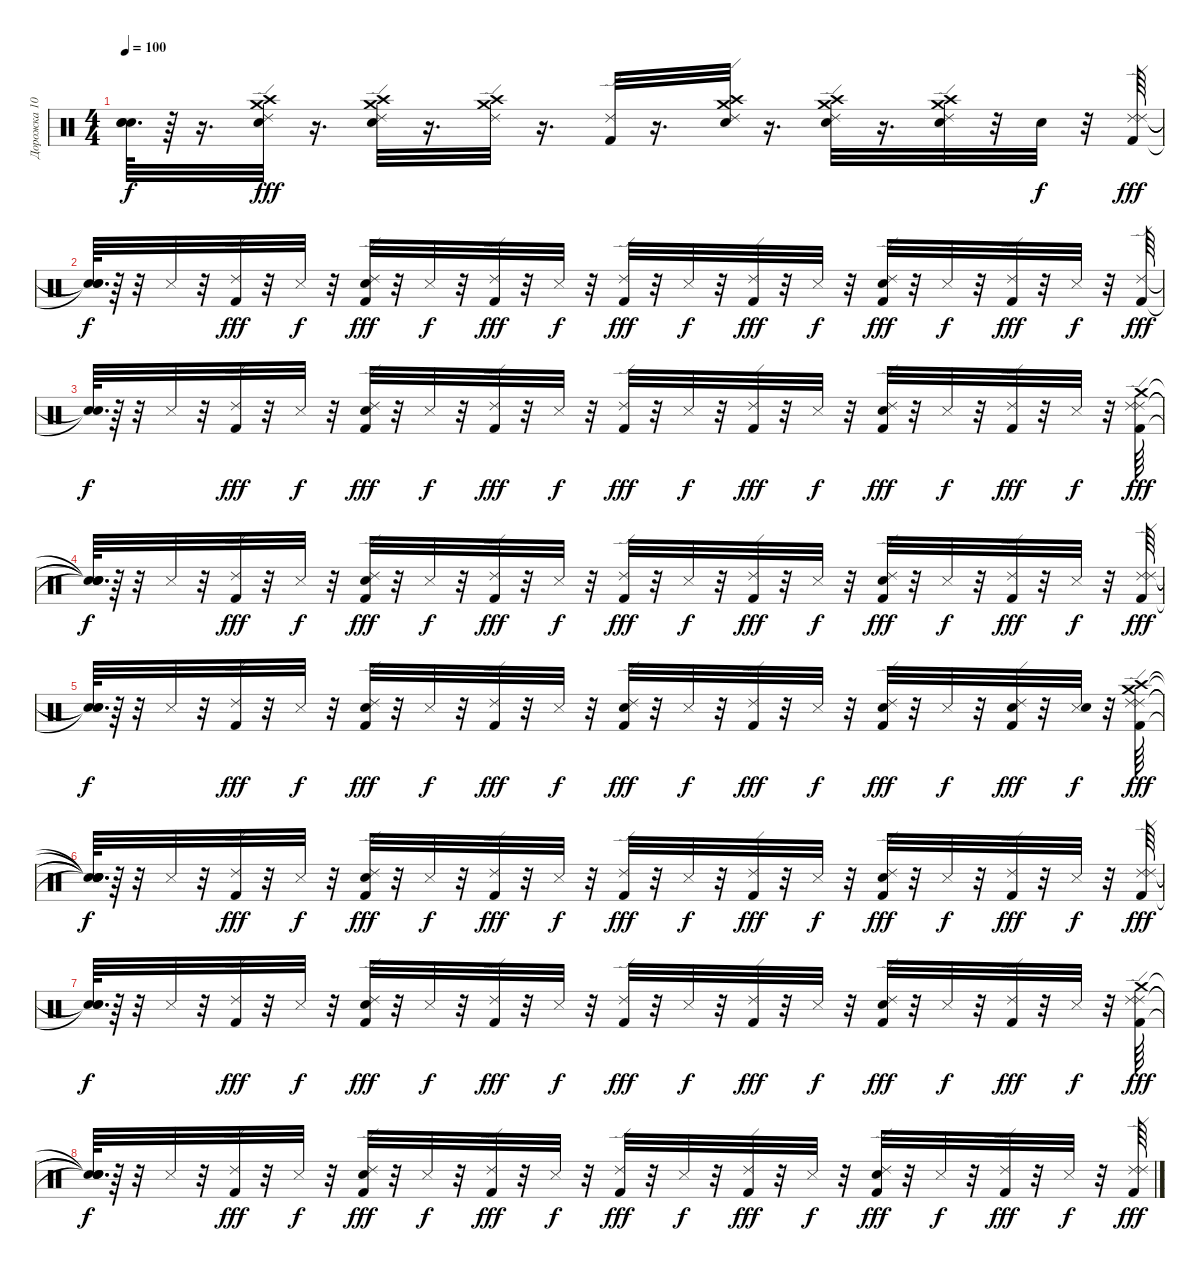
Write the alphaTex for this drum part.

\track ("Дорожка 10" "Дорожка 10") {instrument percussion}
\staff {score}
\articulation defaults
\ts (4 4)
\tempo 100
\clef neutral
\ks c
("Snare (hit)"{t} "Snare (hit)"{t} "Snare (hit)"{t}).64{d dy f} r.64 r.16{d} ("Crash medium (hit)" "Crash high (hit)" "Snare (hit) 2" "Ride (edge) 2").32{dy fff} r.16{d} ("Crash high (hit)" "Crash medium (hit)" "Snare (hit) 2" "Ride (edge) 2").32 r.16{d} ("Crash medium (hit)" "Crash high (hit)" "Ride (edge) 2").32 r.16{d} ("Kick (hit) 2" "Ride (edge) 2").32 r.16{d} ("Crash medium (hit)" "Crash high (hit)" "Snare (hit) 2" "Ride (edge) 2").32 r.16{d} ("Crash medium (hit)" "Crash high (hit)" "Snare (hit) 2" "Ride (edge) 2").32 r.16{d} ("Snare (hit) 2" "Crash medium (hit)" "Crash high (hit)" "Ride (edge) 2").32 r.32 "Snare (hit) 2".32{dy f} r.32 ("Ride (edge) 2" "Kick (hit) 2" "Ride (edge) 2").64{dy fff} |
("Snare (hit)"{t} "Snare (hit)"{t} "Snare (hit)"{t}).64{d dy f} r.64 r.32 "Metronome (hit)".32 r.32 ("Kick (hit) 2" "Ride (edge) 2").32{dy fff} r.32 "Metronome (hit)".32{dy f} r.32 ("Kick (hit) 2" "Snare (hit) 2" "Ride (edge) 2").32{dy fff} r.32 "Metronome (hit)".32{dy f} r.32 ("Kick (hit) 2" "Ride (edge) 2").32{dy fff} r.32 "Metronome (hit)".32{dy f} r.32 ("Kick (hit) 2" "Ride (edge) 2").32{dy fff} r.32 "Metronome (hit)".32{dy f} r.32 ("Kick (hit) 2" "Ride (edge) 2").32{dy fff} r.32 "Metronome (hit)".32{dy f} r.32 ("Kick (hit) 2" "Snare (hit) 2" "Ride (edge) 2").32{dy fff} r.32 "Metronome (hit)".32{dy f} r.32 ("Kick (hit) 2" "Ride (edge) 2").32{dy fff} r.32 "Metronome (hit)".32{dy f} r.32 ("Kick (hit) 2" "Ride (edge) 2").64{dy fff} |
("Snare (hit)"{t} "Snare (hit)"{t}).64{d dy f} r.64 r.32 "Metronome (hit)".32 r.32 ("Kick (hit) 2" "Ride (edge) 2").32{dy fff} r.32 "Metronome (hit)".32{dy f} r.32 ("Kick (hit) 2" "Snare (hit) 2" "Ride (edge) 2").32{dy fff} r.32 "Metronome (hit)".32{dy f} r.32 ("Kick (hit) 2" "Ride (edge) 2").32{dy fff} r.32 "Metronome (hit)".32{dy f} r.32 ("Kick (hit) 2" "Ride (edge) 2").32{dy fff} r.32 "Metronome (hit)".32{dy f} r.32 ("Kick (hit) 2" "Ride (edge) 2").32{dy fff} r.32 "Metronome (hit)".32{dy f} r.32 ("Kick (hit) 2" "Snare (hit) 2" "Ride (edge) 2").32{dy fff} r.32 "Metronome (hit)".32{dy f} r.32 ("Kick (hit) 2" "Ride (edge) 2").32{dy fff} r.32 "Metronome (hit)".32{dy f} r.32 ("Ride (edge) 2" "Crash medium (hit)" "Kick (hit) 2" "Ride (edge) 2").64{dy fff} |
("Snare (hit)"{t} "Snare (hit)"{t} "Snare (hit)"{t} "Snare (hit)"{t}).64{d dy f} r.64 r.32 "Metronome (hit)".32 r.32 ("Kick (hit) 2" "Ride (edge) 2").32{dy fff} r.32 "Metronome (hit)".32{dy f} r.32 ("Kick (hit) 2" "Snare (hit) 2" "Ride (edge) 2").32{dy fff} r.32 "Metronome (hit)".32{dy f} r.32 ("Kick (hit) 2" "Ride (edge) 2").32{dy fff} r.32 "Metronome (hit)".32{dy f} r.32 ("Kick (hit) 2" "Ride (edge) 2").32{dy fff} r.32 "Metronome (hit)".32{dy f} r.32 ("Kick (hit) 2" "Ride (edge) 2").32{dy fff} r.32 "Metronome (hit)".32{dy f} r.32 ("Kick (hit) 2" "Snare (hit) 2" "Ride (edge) 2").32{dy fff} r.32 "Metronome (hit)".32{dy f} r.32 ("Kick (hit) 2" "Ride (edge) 2").32{dy fff} r.32 "Metronome (hit)".32{dy f} r.32 ("Ride (edge) 2" "Kick (hit) 2" "Ride (edge) 2").64{dy fff} |
("Snare (hit)"{t} "Snare (hit)"{t} "Snare (hit)"{t}).64{d dy f} r.64 r.32 "Metronome (hit)".32 r.32 ("Kick (hit) 2" "Ride (edge) 2").32{dy fff} r.32 "Metronome (hit)".32{dy f} r.32 ("Kick (hit) 2" "Snare (hit) 2" "Ride (edge) 2").32{dy fff} r.32 "Metronome (hit)".32{dy f} r.32 ("Kick (hit) 2" "Ride (edge) 2").32{dy fff} r.32 "Metronome (hit)".32{dy f} r.32 ("Kick (hit) 2" "Snare (hit) 2" "Ride (edge) 2").32{dy fff} r.32 "Metronome (hit)".32{dy f} r.32 ("Kick (hit) 2" "Ride (edge) 2").32{dy fff} r.32 "Metronome (hit)".32{dy f} r.32 ("Kick (hit) 2" "Snare (hit) 2" "Ride (edge) 2").32{dy fff} r.32 "Metronome (hit)".32{dy f} r.32 ("Kick (hit) 2" "Snare (hit) 2" "Ride (edge) 2").32{dy fff} r.32 ("Metronome (hit)" "Snare (hit) 2").32{dy f} r.32 ("Ride (edge) 2" "Crash high (hit)" "Crash medium (hit)" "Kick (hit) 2" "Ride (edge) 2").64{dy fff} |
("Snare (hit)"{t} "Snare (hit)"{t} "Snare (hit)"{t} "Snare (hit)"{t} "Snare (hit)"{t}).64{d dy f} r.64 r.32 "Metronome (hit)".32 r.32 ("Kick (hit) 2" "Ride (edge) 2").32{dy fff} r.32 "Metronome (hit)".32{dy f} r.32 ("Snare (hit) 2" "Kick (hit) 2" "Ride (edge) 2").32{dy fff} r.32 "Metronome (hit)".32{dy f} r.32 ("Kick (hit) 2" "Ride (edge) 2").32{dy fff} r.32 "Metronome (hit)".32{dy f} r.32 ("Kick (hit) 2" "Ride (edge) 2").32{dy fff} r.32 "Metronome (hit)".32{dy f} r.32 ("Kick (hit) 2" "Ride (edge) 2").32{dy fff} r.32 "Metronome (hit)".32{dy f} r.32 ("Snare (hit) 2" "Kick (hit) 2" "Ride (edge) 2").32{dy fff} r.32 "Metronome (hit)".32{dy f} r.32 ("Kick (hit) 2" "Ride (edge) 2").32{dy fff} r.32 "Metronome (hit)".32{dy f} r.32 ("Ride (edge) 2" "Kick (hit) 2" "Ride (edge) 2").64{dy fff} |
("Snare (hit)"{t} "Snare (hit)"{t} "Snare (hit)"{t}).64{d dy f} r.64 r.32 "Metronome (hit)".32 r.32 ("Kick (hit) 2" "Ride (edge) 2").32{dy fff} r.32 "Metronome (hit)".32{dy f} r.32 ("Snare (hit) 2" "Kick (hit) 2" "Ride (edge) 2").32{dy fff} r.32 "Metronome (hit)".32{dy f} r.32 ("Kick (hit) 2" "Ride (edge) 2").32{dy fff} r.32 "Metronome (hit)".32{dy f} r.32 ("Kick (hit) 2" "Ride (edge) 2").32{dy fff} r.32 "Metronome (hit)".32{dy f} r.32 ("Kick (hit) 2" "Ride (edge) 2").32{dy fff} r.32 "Metronome (hit)".32{dy f} r.32 ("Snare (hit) 2" "Kick (hit) 2" "Ride (edge) 2").32{dy fff} r.32 "Metronome (hit)".32{dy f} r.32 ("Kick (hit) 2" "Ride (edge) 2").32{dy fff} r.32 "Metronome (hit)".32{dy f} r.32 ("Ride (edge) 2" "Crash medium (hit)" "Kick (hit) 2" "Ride (edge) 2").64{dy fff} |
("Snare (hit)"{t} "Snare (hit)"{t} "Snare (hit)"{t} "Snare (hit)"{t}).64{d dy f} r.64 r.32 "Metronome (hit)".32 r.32 ("Kick (hit) 2" "Ride (edge) 2").32{dy fff} r.32 "Metronome (hit)".32{dy f} r.32 ("Snare (hit) 2" "Kick (hit) 2" "Ride (edge) 2").32{dy fff} r.32 "Metronome (hit)".32{dy f} r.32 ("Kick (hit) 2" "Ride (edge) 2").32{dy fff} r.32 "Metronome (hit)".32{dy f} r.32 ("Kick (hit) 2" "Ride (edge) 2").32{dy fff} r.32 "Metronome (hit)".32{dy f} r.32 ("Kick (hit) 2" "Ride (edge) 2").32{dy fff} r.32 "Metronome (hit)".32{dy f} r.32 ("Snare (hit) 2" "Kick (hit) 2" "Ride (edge) 2").32{dy fff} r.32 "Metronome (hit)".32{dy f} r.32 ("Kick (hit) 2" "Ride (edge) 2").32{dy fff} r.32 "Metronome (hit)".32{dy f} r.32 ("Ride (edge) 2" "Kick (hit) 2" "Ride (edge) 2").64{dy fff}
